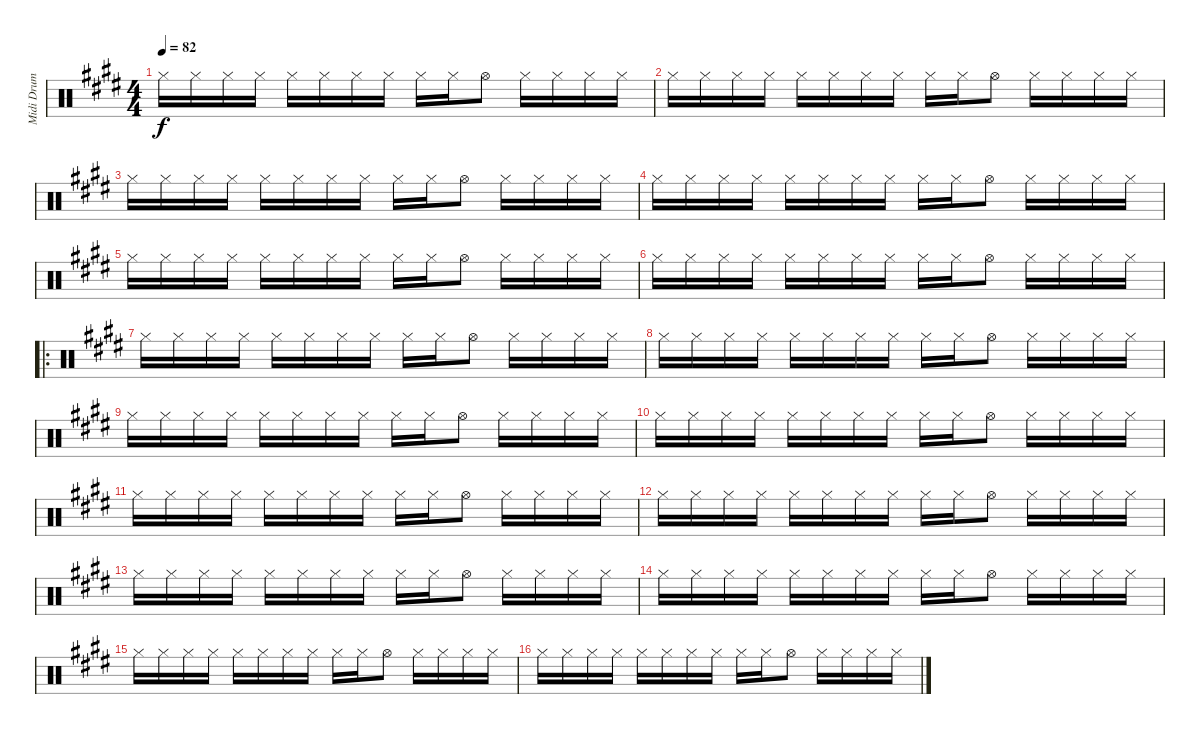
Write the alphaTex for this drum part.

\track ("Midi Drum" "Midi Drum") {instrument percussion}
\staff {score}
\articulation defaults
\ts (4 4)
\tempo 82
\clef neutral
\ks e "Hi-Hat (closed)".16{dy f} "Hi-Hat (closed)".16 "Hi-Hat (closed)".16 "Hi-Hat (closed)".16 "Hi-Hat (closed)".16 "Hi-Hat (closed)".16 "Hi-Hat (closed)".16 "Hi-Hat (closed)".16 "Hi-Hat (closed)".16 "Hi-Hat (closed)".16 "Hi-Hat (open)".8 "Hi-Hat (closed)".16 "Hi-Hat (closed)".16 "Hi-Hat (closed)".16 "Hi-Hat (closed)".16
|
"Hi-Hat (closed)".16 "Hi-Hat (closed)".16 "Hi-Hat (closed)".16 "Hi-Hat (closed)".16 "Hi-Hat (closed)".16 "Hi-Hat (closed)".16 "Hi-Hat (closed)".16 "Hi-Hat (closed)".16 "Hi-Hat (closed)".16 "Hi-Hat (closed)".16 "Hi-Hat (open)".8 "Hi-Hat (closed)".16 "Hi-Hat (closed)".16 "Hi-Hat (closed)".16 "Hi-Hat (closed)".16 |
"Hi-Hat (closed)".16 "Hi-Hat (closed)".16 "Hi-Hat (closed)".16 "Hi-Hat (closed)".16 "Hi-Hat (closed)".16 "Hi-Hat (closed)".16 "Hi-Hat (closed)".16 "Hi-Hat (closed)".16 "Hi-Hat (closed)".16 "Hi-Hat (closed)".16 "Hi-Hat (open)".8 "Hi-Hat (closed)".16 "Hi-Hat (closed)".16 "Hi-Hat (closed)".16 "Hi-Hat (closed)".16 |
"Hi-Hat (closed)".16 "Hi-Hat (closed)".16 "Hi-Hat (closed)".16 "Hi-Hat (closed)".16 "Hi-Hat (closed)".16 "Hi-Hat (closed)".16 "Hi-Hat (closed)".16 "Hi-Hat (closed)".16 "Hi-Hat (closed)".16 "Hi-Hat (closed)".16 "Hi-Hat (open)".8 "Hi-Hat (closed)".16 "Hi-Hat (closed)".16 "Hi-Hat (closed)".16 "Hi-Hat (closed)".16 |
"Hi-Hat (closed)".16 "Hi-Hat (closed)".16 "Hi-Hat (closed)".16 "Hi-Hat (closed)".16 "Hi-Hat (closed)".16 "Hi-Hat (closed)".16 "Hi-Hat (closed)".16 "Hi-Hat (closed)".16 "Hi-Hat (closed)".16 "Hi-Hat (closed)".16 "Hi-Hat (open)".8 "Hi-Hat (closed)".16 "Hi-Hat (closed)".16 "Hi-Hat (closed)".16 "Hi-Hat (closed)".16 |
"Hi-Hat (closed)".16 "Hi-Hat (closed)".16 "Hi-Hat (closed)".16 "Hi-Hat (closed)".16 "Hi-Hat (closed)".16 "Hi-Hat (closed)".16 "Hi-Hat (closed)".16 "Hi-Hat (closed)".16 "Hi-Hat (closed)".16 "Hi-Hat (closed)".16 "Hi-Hat (open)".8 "Hi-Hat (closed)".16 "Hi-Hat (closed)".16 "Hi-Hat (closed)".16 "Hi-Hat (closed)".16 |
\ro "Hi-Hat (closed)".16 "Hi-Hat (closed)".16 "Hi-Hat (closed)".16 "Hi-Hat (closed)".16 "Hi-Hat (closed)".16 "Hi-Hat (closed)".16 "Hi-Hat (closed)".16 "Hi-Hat (closed)".16 "Hi-Hat (closed)".16 "Hi-Hat (closed)".16 "Hi-Hat (open)".8 "Hi-Hat (closed)".16 "Hi-Hat (closed)".16 "Hi-Hat (closed)".16 "Hi-Hat (closed)".16
|
"Hi-Hat (closed)".16 "Hi-Hat (closed)".16 "Hi-Hat (closed)".16 "Hi-Hat (closed)".16 "Hi-Hat (closed)".16 "Hi-Hat (closed)".16 "Hi-Hat (closed)".16 "Hi-Hat (closed)".16 "Hi-Hat (closed)".16 "Hi-Hat (closed)".16 "Hi-Hat (open)".8 "Hi-Hat (closed)".16 "Hi-Hat (closed)".16 "Hi-Hat (closed)".16 "Hi-Hat (closed)".16 |
"Hi-Hat (closed)".16 "Hi-Hat (closed)".16 "Hi-Hat (closed)".16 "Hi-Hat (closed)".16 "Hi-Hat (closed)".16 "Hi-Hat (closed)".16 "Hi-Hat (closed)".16 "Hi-Hat (closed)".16 "Hi-Hat (closed)".16 "Hi-Hat (closed)".16 "Hi-Hat (open)".8 "Hi-Hat (closed)".16 "Hi-Hat (closed)".16 "Hi-Hat (closed)".16 "Hi-Hat (closed)".16 |
"Hi-Hat (closed)".16 "Hi-Hat (closed)".16 "Hi-Hat (closed)".16 "Hi-Hat (closed)".16 "Hi-Hat (closed)".16 "Hi-Hat (closed)".16 "Hi-Hat (closed)".16 "Hi-Hat (closed)".16 "Hi-Hat (closed)".16 "Hi-Hat (closed)".16 "Hi-Hat (open)".8 "Hi-Hat (closed)".16 "Hi-Hat (closed)".16 "Hi-Hat (closed)".16 "Hi-Hat (closed)".16 |
"Hi-Hat (closed)".16 "Hi-Hat (closed)".16 "Hi-Hat (closed)".16 "Hi-Hat (closed)".16 "Hi-Hat (closed)".16 "Hi-Hat (closed)".16 "Hi-Hat (closed)".16 "Hi-Hat (closed)".16 "Hi-Hat (closed)".16 "Hi-Hat (closed)".16 "Hi-Hat (open)".8 "Hi-Hat (closed)".16 "Hi-Hat (closed)".16 "Hi-Hat (closed)".16 "Hi-Hat (closed)".16 |
"Hi-Hat (closed)".16 "Hi-Hat (closed)".16 "Hi-Hat (closed)".16 "Hi-Hat (closed)".16 "Hi-Hat (closed)".16 "Hi-Hat (closed)".16 "Hi-Hat (closed)".16 "Hi-Hat (closed)".16 "Hi-Hat (closed)".16 "Hi-Hat (closed)".16 "Hi-Hat (open)".8 "Hi-Hat (closed)".16 "Hi-Hat (closed)".16 "Hi-Hat (closed)".16 "Hi-Hat (closed)".16 |
"Hi-Hat (closed)".16 "Hi-Hat (closed)".16 "Hi-Hat (closed)".16 "Hi-Hat (closed)".16 "Hi-Hat (closed)".16 "Hi-Hat (closed)".16 "Hi-Hat (closed)".16 "Hi-Hat (closed)".16 "Hi-Hat (closed)".16 "Hi-Hat (closed)".16 "Hi-Hat (open)".8 "Hi-Hat (closed)".16 "Hi-Hat (closed)".16 "Hi-Hat (closed)".16 "Hi-Hat (closed)".16 |
"Hi-Hat (closed)".16 "Hi-Hat (closed)".16 "Hi-Hat (closed)".16 "Hi-Hat (closed)".16 "Hi-Hat (closed)".16 "Hi-Hat (closed)".16 "Hi-Hat (closed)".16 "Hi-Hat (closed)".16 "Hi-Hat (closed)".16 "Hi-Hat (closed)".16 "Hi-Hat (open)".8 "Hi-Hat (closed)".16 "Hi-Hat (closed)".16 "Hi-Hat (closed)".16 "Hi-Hat (closed)".16 |
"Hi-Hat (closed)".16 "Hi-Hat (closed)".16 "Hi-Hat (closed)".16 "Hi-Hat (closed)".16 "Hi-Hat (closed)".16 "Hi-Hat (closed)".16 "Hi-Hat (closed)".16 "Hi-Hat (closed)".16 "Hi-Hat (closed)".16 "Hi-Hat (closed)".16 "Hi-Hat (open)".8 "Hi-Hat (closed)".16 "Hi-Hat (closed)".16 "Hi-Hat (closed)".16 "Hi-Hat (closed)".16 |
"Hi-Hat (closed)".16 "Hi-Hat (closed)".16 "Hi-Hat (closed)".16 "Hi-Hat (closed)".16 "Hi-Hat (closed)".16 "Hi-Hat (closed)".16 "Hi-Hat (closed)".16 "Hi-Hat (closed)".16 "Hi-Hat (closed)".16 "Hi-Hat (closed)".16 "Hi-Hat (open)".8 "Hi-Hat (closed)".16 "Hi-Hat (closed)".16 "Hi-Hat (closed)".16 "Hi-Hat (closed)".16
